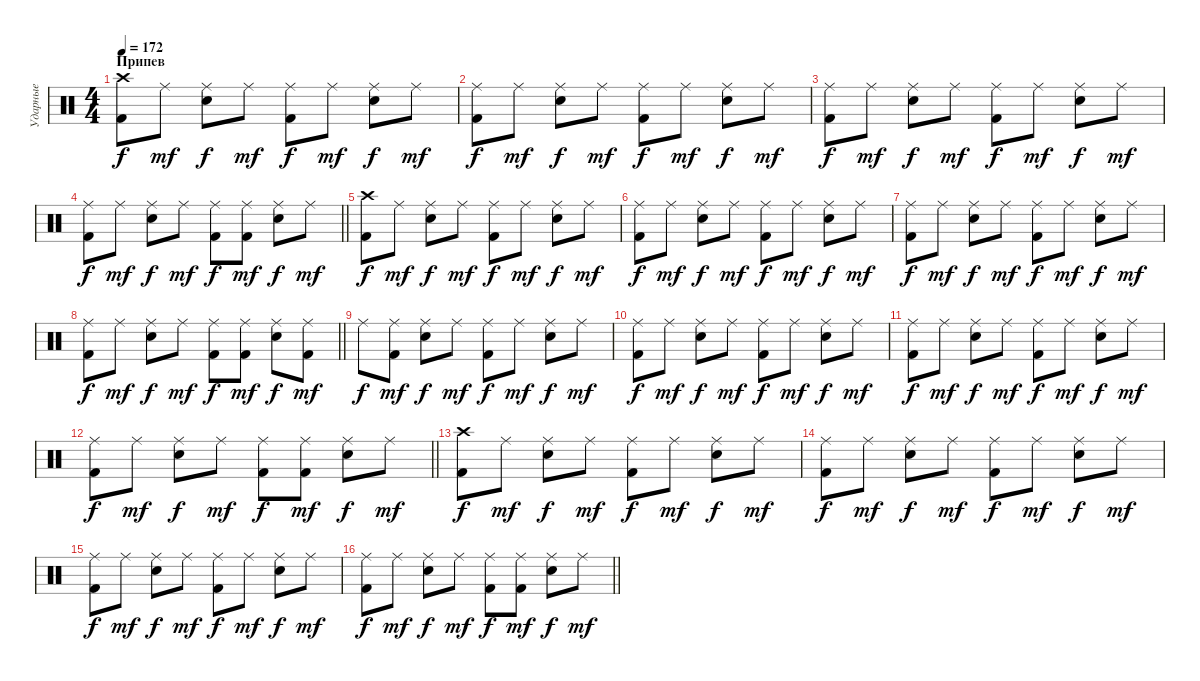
\track ("Ударные" "Ударные") {instrument percussion}
\staff {score}
\articulation defaults
\ts (4 4)
\section ("" "Припев")
\tempo 172
\clef neutral
\ks c
("Crash high (hit)" "Kick (hit) 2").8{dy f} "Ride (middle)".8{dy mf} ("Ride (middle)" "Snare (hit) 2").8{dy f} "Ride (middle)".8{dy mf} ("Ride (middle)" "Kick (hit) 2").8{dy f} "Ride (middle)".8{dy mf} ("Ride (middle)" "Snare (hit) 2").8{dy f} "Ride (middle)".8{dy mf} |
("Ride (middle)" "Kick (hit) 2").8{dy f} "Ride (middle)".8{dy mf} ("Ride (middle)" "Snare (hit) 2").8{dy f} "Ride (middle)".8{dy mf} ("Ride (middle)" "Kick (hit) 2").8{dy f} "Ride (middle)".8{dy mf} ("Ride (middle)" "Snare (hit) 2").8{dy f} "Ride (middle)".8{dy mf} |
("Ride (middle)" "Kick (hit) 2").8{dy f} "Ride (middle)".8{dy mf} ("Ride (middle)" "Snare (hit) 2").8{dy f} "Ride (middle)".8{dy mf} ("Ride (middle)" "Kick (hit) 2").8{dy f} "Ride (middle)".8{dy mf} ("Ride (middle)" "Snare (hit) 2").8{dy f} "Ride (middle)".8{dy mf} |
\barLineRight lightlight
("Ride (middle)" "Kick (hit) 2").8{dy f} "Ride (middle)".8{dy mf} ("Ride (middle)" "Snare (hit) 2").8{dy f} "Ride (middle)".8{dy mf} ("Ride (middle)" "Kick (hit) 2").8{dy f} ("Ride (middle)" "Kick (hit) 2").8{dy mf} ("Ride (middle)" "Snare (hit) 2").8{dy f} "Ride (middle)".8{dy mf} |
("Crash high (hit)" "Kick (hit) 2").8{dy f} "Ride (middle)".8{dy mf} ("Ride (middle)" "Snare (hit) 2").8{dy f} "Ride (middle)".8{dy mf} ("Ride (middle)" "Kick (hit) 2").8{dy f} "Ride (middle)".8{dy mf} ("Ride (middle)" "Snare (hit) 2").8{dy f} "Ride (middle)".8{dy mf} |
("Ride (middle)" "Kick (hit) 2").8{dy f} "Ride (middle)".8{dy mf} ("Ride (middle)" "Snare (hit) 2").8{dy f} "Ride (middle)".8{dy mf} ("Ride (middle)" "Kick (hit) 2").8{dy f} "Ride (middle)".8{dy mf} ("Ride (middle)" "Snare (hit) 2").8{dy f} "Ride (middle)".8{dy mf} |
("Ride (middle)" "Kick (hit) 2").8{dy f} "Ride (middle)".8{dy mf} ("Ride (middle)" "Snare (hit) 2").8{dy f} "Ride (middle)".8{dy mf} ("Ride (middle)" "Kick (hit) 2").8{dy f} "Ride (middle)".8{dy mf} ("Ride (middle)" "Snare (hit) 2").8{dy f} "Ride (middle)".8{dy mf} |
\barLineRight lightlight
("Ride (middle)" "Kick (hit) 2").8{dy f} "Ride (middle)".8{dy mf} ("Ride (middle)" "Snare (hit) 2").8{dy f} "Ride (middle)".8{dy mf} ("Ride (middle)" "Kick (hit) 2").8{dy f} ("Ride (middle)" "Kick (hit) 2").8{dy mf} ("Ride (middle)" "Snare (hit) 2").8{dy f} ("Ride (middle)" "Kick (hit) 2").8{dy mf} |
\section ("" "")
"Ride (middle)".8{dy f} ("Ride (middle)" "Kick (hit) 2").8{dy mf} ("Ride (middle)" "Snare (hit) 2").8{dy f} "Ride (middle)".8{dy mf} ("Ride (middle)" "Kick (hit) 2").8{dy f} "Ride (middle)".8{dy mf} ("Ride (middle)" "Snare (hit) 2").8{dy f} "Ride (middle)".8{dy mf} |
("Ride (middle)" "Kick (hit) 2").8{dy f} "Ride (middle)".8{dy mf} ("Ride (middle)" "Snare (hit) 2").8{dy f} "Ride (middle)".8{dy mf} ("Ride (middle)" "Kick (hit) 2").8{dy f} "Ride (middle)".8{dy mf} ("Ride (middle)" "Snare (hit) 2").8{dy f} "Ride (middle)".8{dy mf} |
("Ride (middle)" "Kick (hit) 2").8{dy f} "Ride (middle)".8{dy mf} ("Ride (middle)" "Snare (hit) 2").8{dy f} "Ride (middle)".8{dy mf} ("Ride (middle)" "Kick (hit) 2").8{dy f} "Ride (middle)".8{dy mf} ("Ride (middle)" "Snare (hit) 2").8{dy f} "Ride (middle)".8{dy mf} |
\barLineRight lightlight
("Ride (middle)" "Kick (hit) 2").8{dy f} "Ride (middle)".8{dy mf} ("Ride (middle)" "Snare (hit) 2").8{dy f} "Ride (middle)".8{dy mf} ("Ride (middle)" "Kick (hit) 2").8{dy f} ("Ride (middle)" "Kick (hit) 2").8{dy mf} ("Ride (middle)" "Snare (hit) 2").8{dy f} "Ride (middle)".8{dy mf} |
("Crash high (hit)" "Kick (hit) 2").8{dy f} "Ride (middle)".8{dy mf} ("Ride (middle)" "Snare (hit) 2").8{dy f} "Ride (middle)".8{dy mf} ("Ride (middle)" "Kick (hit) 2").8{dy f} "Ride (middle)".8{dy mf} ("Ride (middle)" "Snare (hit) 2").8{dy f} "Ride (middle)".8{dy mf} |
("Ride (middle)" "Kick (hit) 2").8{dy f} "Ride (middle)".8{dy mf} ("Ride (middle)" "Snare (hit) 2").8{dy f} "Ride (middle)".8{dy mf} ("Ride (middle)" "Kick (hit) 2").8{dy f} "Ride (middle)".8{dy mf} ("Ride (middle)" "Snare (hit) 2").8{dy f} "Ride (middle)".8{dy mf} |
("Ride (middle)" "Kick (hit) 2").8{dy f} "Ride (middle)".8{dy mf} ("Ride (middle)" "Snare (hit) 2").8{dy f} "Ride (middle)".8{dy mf} ("Ride (middle)" "Kick (hit) 2").8{dy f} "Ride (middle)".8{dy mf} ("Ride (middle)" "Snare (hit) 2").8{dy f} "Ride (middle)".8{dy mf} |
\barLineRight lightlight
("Ride (middle)" "Kick (hit) 2").8{dy f} "Ride (middle)".8{dy mf} ("Ride (middle)" "Snare (hit) 2").8{dy f} "Ride (middle)".8{dy mf} ("Ride (middle)" "Kick (hit) 2").8{dy f} ("Ride (middle)" "Kick (hit) 2").8{dy mf} ("Ride (middle)" "Snare (hit) 2").8{dy f} "Ride (middle)".8{dy mf}
